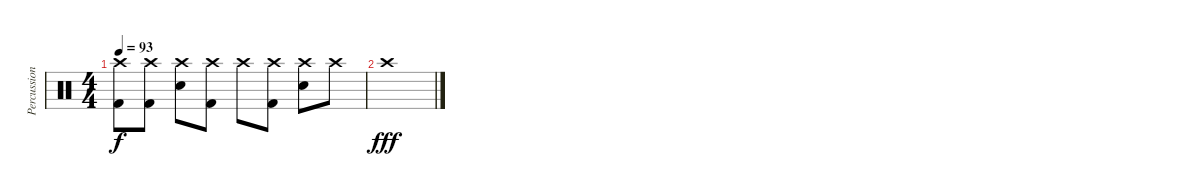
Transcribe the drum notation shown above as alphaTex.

\track ("Percussion" "Percussion") {instrument percussion}
\staff {score}
\articulation defaults
\ts (4 4)
\tempo 93
\clef neutral
\ks c
("Crash high (hit)" "Kick (hit) 2").8{dy f} ("Crash high (hit)" "Kick (hit) 2").8 ("Crash high (hit)" "Electric Snare (hit)").8 ("Crash high (hit)" "Kick (hit) 2").8 "Crash high (hit)".8 ("Crash high (hit)" "Kick (hit) 2").8 ("Crash high (hit)" "Electric Snare (hit)").8 "Crash high (hit)".8 |
"Crash high (hit)".1{dy fff}
